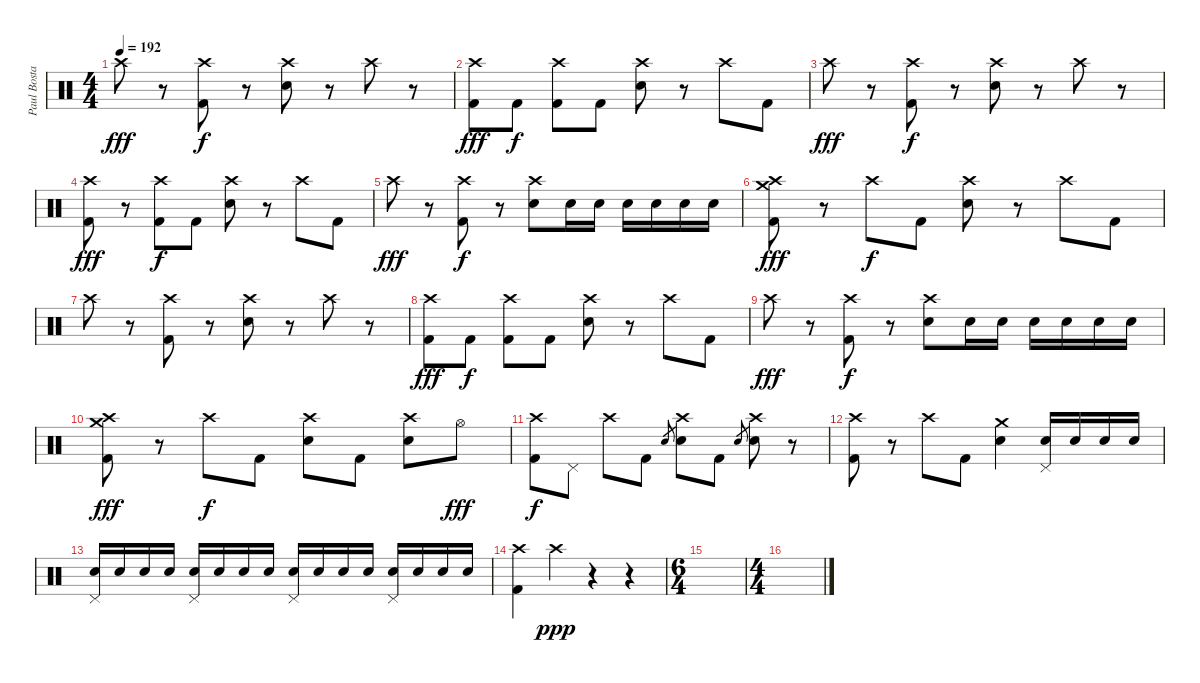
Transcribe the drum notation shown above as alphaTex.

\track ("Paul Bostaph" "Paul Bosta") {instrument percussion}
\staff {score}
\articulation defaults
\ts (4 4)
\tempo 192
\clef neutral
\ks c "Crash high (hit)".8{dy fff}
r.8 ("Kick (hit) 2" "Crash high (hit)").8{dy f} r.8 ("Electric Snare (hit)" "Crash high (hit)").8 r.8 "Crash high (hit)".8 r.8 |
("Crash high (hit)" "Kick (hit) 2").8{dy fff} "Kick (hit) 2".8{dy f} ("Crash high (hit)" "Kick (hit) 2").8 "Kick (hit) 2".8 ("Electric Snare (hit)" "Crash high (hit)").8 r.8 "Crash high (hit)".8 "Kick (hit) 2".8 |
"Crash high (hit)".8{dy fff} r.8 ("Kick (hit) 2" "Crash high (hit)").8{dy f} r.8 ("Electric Snare (hit)" "Crash high (hit)").8 r.8 "Crash high (hit)".8 r.8 |
("Crash high (hit)" "Kick (hit) 2").8{dy fff} r.8 ("Crash high (hit)" "Kick (hit) 2").8{dy f} "Kick (hit) 2".8 ("Electric Snare (hit)" "Crash high (hit)").8 r.8 "Crash high (hit)".8 "Kick (hit) 2".8 |
"Crash high (hit)".8{dy fff} r.8 ("Kick (hit) 2" "Crash high (hit)").8{dy f} r.8 ("Electric Snare (hit)" "Crash high (hit)").8 "Electric Snare (hit)".16 "Electric Snare (hit)".16 "Electric Snare (hit)".16 "Electric Snare (hit)".16 "Electric Snare (hit)".16 "Electric Snare (hit)".16 |
("Crash high (hit)" "Crash medium (hit)" "Kick (hit) 2").8{dy fff} r.8 "Crash high (hit)".8{dy f} "Kick (hit) 2".8 ("Electric Snare (hit)" "Crash high (hit)").8 r.8 "Crash high (hit)".8 "Kick (hit) 2".8 |
"Crash high (hit)".8 r.8 ("Kick (hit) 2" "Crash high (hit)").8 r.8 ("Electric Snare (hit)" "Crash high (hit)").8 r.8 "Crash high (hit)".8 r.8 |
("Crash high (hit)" "Kick (hit) 2").8{dy fff} "Kick (hit) 2".8{dy f} ("Crash high (hit)" "Kick (hit) 2").8 "Kick (hit) 2".8 ("Electric Snare (hit)" "Crash high (hit)").8 r.8 "Crash high (hit)".8 "Kick (hit) 2".8 |
"Crash high (hit)".8{dy fff} r.8 ("Kick (hit) 2" "Crash high (hit)").8{dy f} r.8 ("Electric Snare (hit)" "Crash high (hit)").8 "Electric Snare (hit)".16 "Electric Snare (hit)".16 "Electric Snare (hit)".16 "Electric Snare (hit)".16 "Electric Snare (hit)".16 "Electric Snare (hit)".16 |
("Crash medium (hit)" "Kick (hit) 2" "Crash high (hit)").8{dy fff} r.8 "Crash high (hit)".8{dy f} "Kick (hit) 2".8 ("Crash high (hit)" "Electric Snare (hit)").8 "Kick (hit) 2".8 ("Crash high (hit)" "Electric Snare (hit)").8 "Hi-Hat (open)".8{dy fff} |
("Crash high (hit)" "Kick (hit) 2").8{dy f} "Pedal Hi-Hat (hit)".8 "Crash high (hit)".8 "Kick (hit) 2".8 "Electric Snare (hit)".8{gr} ("Crash high (hit)" "Electric Snare (hit)").8 "Kick (hit) 2".8 "Electric Snare (hit)".8{gr} ("Crash high (hit)" "Electric Snare (hit)").8 r.8 |
("Crash high (hit)" "Kick (hit) 2").8 r.8 "Crash high (hit)".8 "Kick (hit) 2".8 ("Crash medium (hit)" "Electric Snare (hit)").4 ("Pedal Hi-Hat (hit)" "Electric Snare (hit)").16 "Electric Snare (hit)".16 "Electric Snare (hit)".16 "Electric Snare (hit)".16 |
("Pedal Hi-Hat (hit)" "Electric Snare (hit)").16 "Electric Snare (hit)".16 "Electric Snare (hit)".16 "Electric Snare (hit)".16 ("Pedal Hi-Hat (hit)" "Electric Snare (hit)").16 "Electric Snare (hit)".16 "Electric Snare (hit)".16 "Electric Snare (hit)".16 ("Pedal Hi-Hat (hit)" "Electric Snare (hit)").16 "Electric Snare (hit)".16 "Electric Snare (hit)".16 "Electric Snare (hit)".16 ("Pedal Hi-Hat (hit)" "Electric Snare (hit)").16 "Electric Snare (hit)".16 "Electric Snare (hit)".16 "Electric Snare (hit)".16 |
("Crash high (hit)" "Kick (hit) 2").4 "Crash high (hit)".4{dy ppp} r.4 r.4 |
\ts (6 4)
|
\ts (4 4)
